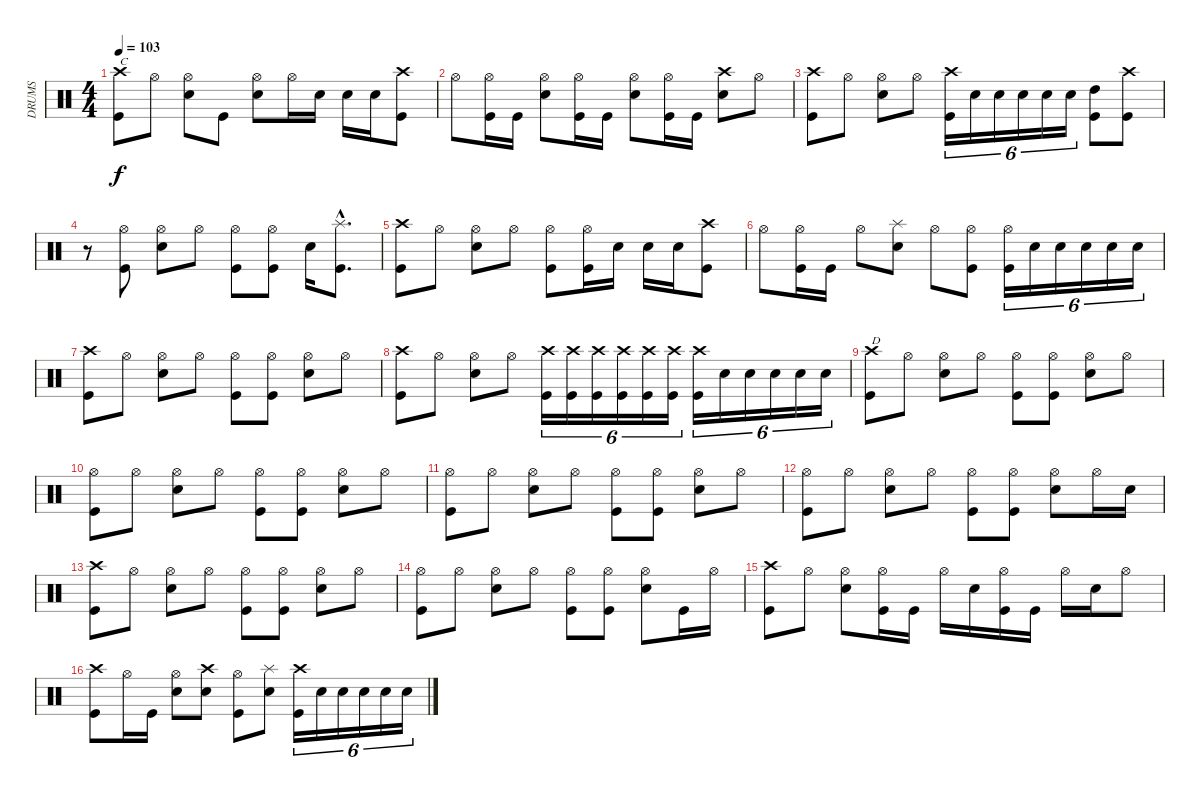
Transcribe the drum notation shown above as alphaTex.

\track ("DRUMS" "DRUMS") {instrument percussion}
\staff {score}
\articulation defaults
\ts (4 4)
\tempo 103
\clef neutral
\ks c
("Crash high (hit)" "Kick (hit)").8{txt "C" dy f} "Hi-Hat (open)".8 ("Hi-Hat (open)" "Electric Snare (hit)").8 "Kick (hit)".8 ("Hi-Hat (open)" "Electric Snare (hit)").8 "Hi-Hat (open)".16 "Electric Snare (hit)".16 "Electric Snare (hit)".16 "Electric Snare (hit)".16 ("Crash high (hit)" "Kick (hit)").8 |
"Hi-Hat (open)".8 ("Hi-Hat (open)" "Kick (hit)").16 "Kick (hit)".16 ("Hi-Hat (open)" "Electric Snare (hit)").8 ("Hi-Hat (open)" "Kick (hit)").16 "Kick (hit)".16 ("Hi-Hat (open)" "Electric Snare (hit)").8 ("Hi-Hat (open)" "Kick (hit)").16 "Kick (hit)".16 ("Crash high (hit)" "Electric Snare (hit)").8 "Hi-Hat (open)".8 |
("Crash high (hit)" "Kick (hit)").8 "Hi-Hat (open)".8 ("Hi-Hat (open)" "Electric Snare (hit)").8 "Hi-Hat (open)".8 ("Crash high (hit)" "Kick (hit)").16{tu (6 4)} "Electric Snare (hit)".16{tu (6 4)} "Electric Snare (hit)".16{tu (6 4)} "Electric Snare (hit)".16{tu (6 4)} "Electric Snare (hit)".16{tu (6 4)} "Electric Snare (hit)".16{tu (6 4)} ("High Tom (hit)" "Kick (hit)").8 ("Crash high (hit)" "Kick (hit)").8 |
r.8 ("Hi-Hat (open)" "Kick (hit)").8 ("Hi-Hat (open)" "Electric Snare (hit)").8 "Hi-Hat (open)".8 ("Hi-Hat (open)" "Kick (hit)").8 ("Hi-Hat (open)" "Kick (hit)").8 "Electric Snare (hit)".16 ("Splash (hit)"{hac} "Kick (hit)"{hac}).8{d} |
("Crash high (hit)" "Kick (hit)").8 "Hi-Hat (open)".8 ("Hi-Hat (open)" "Electric Snare (hit)").8 "Hi-Hat (open)".8 ("Hi-Hat (open)" "Kick (hit)").8 ("Hi-Hat (open)" "Kick (hit)").16 "Electric Snare (hit)".16 "Electric Snare (hit)".16 "Electric Snare (hit)".16 ("Crash high (hit)" "Kick (hit)").8 |
"Hi-Hat (open)".8 ("Hi-Hat (open)" "Kick (hit)").16 "Kick (hit)".16 "Hi-Hat (open)".8 ("Splash (hit)" "Electric Snare (hit)").8 "Hi-Hat (open)".8 ("Hi-Hat (open)" "Kick (hit)").8 ("Hi-Hat (open)" "Kick (hit)").16{tu (6 4)} "Electric Snare (hit)".16{tu (6 4)} "Electric Snare (hit)".16{tu (6 4)} "Electric Snare (hit)".16{tu (6 4)} "Electric Snare (hit)".16{tu (6 4)} "Electric Snare (hit)".16{tu (6 4)} |
("Crash high (hit)" "Kick (hit)").8 "Hi-Hat (open)".8 ("Hi-Hat (open)" "Electric Snare (hit)").8 "Hi-Hat (open)".8 ("Hi-Hat (open)" "Kick (hit)").8 ("Hi-Hat (open)" "Kick (hit)").8 ("Hi-Hat (open)" "Electric Snare (hit)").8 "Hi-Hat (open)".8 |
("Crash high (hit)" "Kick (hit)").8 "Hi-Hat (open)".8 ("Hi-Hat (open)" "Electric Snare (hit)").8 "Hi-Hat (open)".8 ("Crash high (hit)" "Kick (hit)").16{tu (6 4)} ("Crash high (hit)" "Kick (hit)").16{tu (6 4)} ("Crash high (hit)" "Kick (hit)").16{tu (6 4)} ("Crash high (hit)" "Kick (hit)").16{tu (6 4)} ("Crash high (hit)" "Kick (hit)").16{tu (6 4)} ("Crash high (hit)" "Kick (hit)").16{tu (6 4)} ("Crash high (hit)" "Kick (hit)").16{tu (6 4)} "Electric Snare (hit)".16{tu (6 4)} "Electric Snare (hit)".16{tu (6 4)} "Electric Snare (hit)".16{tu (6 4)} "Electric Snare (hit)".16{tu (6 4)} "Electric Snare (hit)".16{tu (6 4)} |
("Crash high (hit)" "Kick (hit)").8{txt "D"} "Hi-Hat (open)".8 ("Hi-Hat (open)" "Electric Snare (hit)").8 "Hi-Hat (open)".8 ("Hi-Hat (open)" "Kick (hit)").8 ("Hi-Hat (open)" "Kick (hit)").8 ("Hi-Hat (open)" "Electric Snare (hit)").8 "Hi-Hat (open)".8 |
("Hi-Hat (open)" "Kick (hit)").8 "Hi-Hat (open)".8 ("Hi-Hat (open)" "Electric Snare (hit)").8 "Hi-Hat (open)".8 ("Hi-Hat (open)" "Kick (hit)").8 ("Hi-Hat (open)" "Kick (hit)").8 ("Hi-Hat (open)" "Electric Snare (hit)").8 "Hi-Hat (open)".8 |
("Hi-Hat (open)" "Kick (hit)").8 "Hi-Hat (open)".8 ("Hi-Hat (open)" "Electric Snare (hit)").8 "Hi-Hat (open)".8 ("Hi-Hat (open)" "Kick (hit)").8 ("Hi-Hat (open)" "Kick (hit)").8 ("Hi-Hat (open)" "Electric Snare (hit)").8 "Hi-Hat (open)".8 |
("Hi-Hat (open)" "Kick (hit)").8 "Hi-Hat (open)".8 ("Hi-Hat (open)" "Electric Snare (hit)").8 "Hi-Hat (open)".8 ("Hi-Hat (open)" "Kick (hit)").8 ("Hi-Hat (open)" "Kick (hit)").8 ("Hi-Hat (open)" "Electric Snare (hit)").8 "Hi-Hat (open)".16 "Electric Snare (hit)".16 |
("Crash high (hit)" "Kick (hit)").8 "Hi-Hat (open)".8 ("Hi-Hat (open)" "Electric Snare (hit)").8 "Hi-Hat (open)".8 ("Hi-Hat (open)" "Kick (hit)").8 ("Hi-Hat (open)" "Kick (hit)").8 ("Hi-Hat (open)" "Electric Snare (hit)").8 "Hi-Hat (open)".8 |
("Hi-Hat (open)" "Kick (hit)").8 "Hi-Hat (open)".8 ("Hi-Hat (open)" "Electric Snare (hit)").8 "Hi-Hat (open)".8 ("Hi-Hat (open)" "Kick (hit)").8 ("Hi-Hat (open)" "Kick (hit)").8 ("Hi-Hat (open)" "Electric Snare (hit)").8 "Kick (hit)".16 "Hi-Hat (open)".16 |
("Crash high (hit)" "Kick (hit)").8 "Hi-Hat (open)".8 ("Hi-Hat (open)" "Electric Snare (hit)").8 ("Hi-Hat (open)" "Kick (hit)").16 "Kick (hit)".16 "Hi-Hat (open)".16 "Electric Snare (hit)".16 ("Hi-Hat (open)" "Kick (hit)").16 "Kick (hit)".16 "Hi-Hat (open)".16 "Electric Snare (hit)".16 "Hi-Hat (open)".8 |
("Crash high (hit)" "Kick (hit)").8 "Hi-Hat (open)".16 "Kick (hit)".16 ("Hi-Hat (open)" "Electric Snare (hit)").8 ("Crash high (hit)" "Electric Snare (hit)").8 ("Hi-Hat (open)" "Kick (hit)").8 ("Splash (hit)" "Electric Snare (hit)").8 ("Crash high (hit)" "Kick (hit)").16{tu (6 4)} "Electric Snare (hit)".16{tu (6 4)} "Electric Snare (hit)".16{tu (6 4)} "Electric Snare (hit)".16{tu (6 4)} "Electric Snare (hit)".16{tu (6 4)} "Electric Snare (hit)".16{tu (6 4)}
